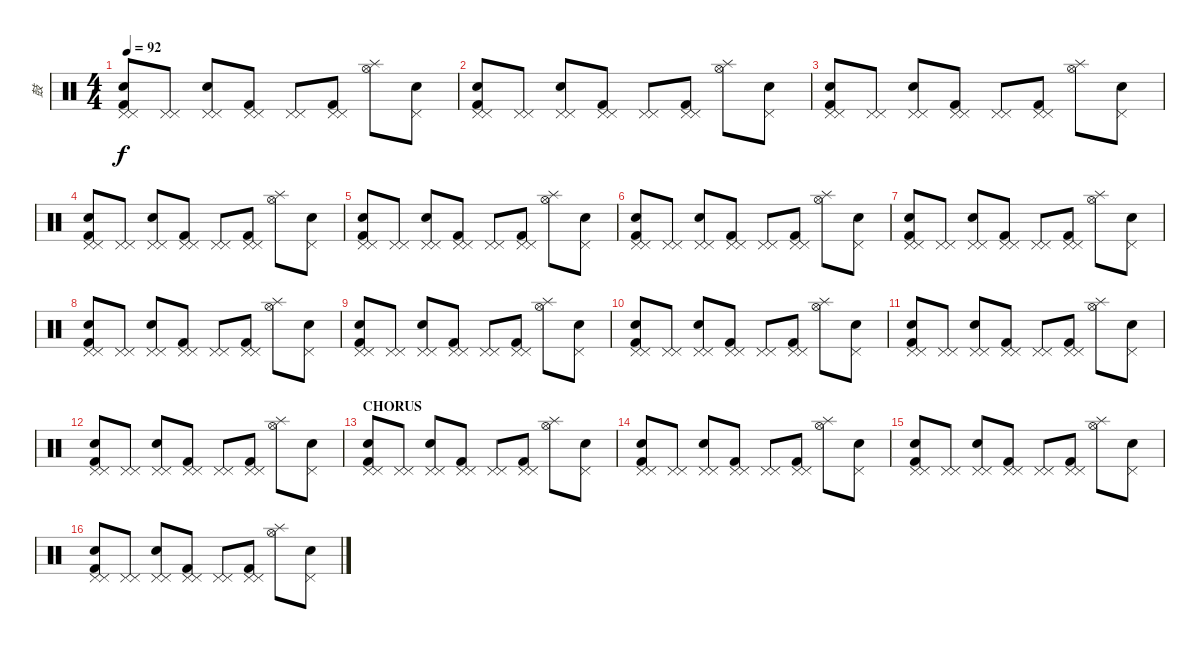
\track ("鼓" "鼓") {instrument percussion}
\staff {score}
\articulation defaults
\ts (4 4)
\tempo 92
\clef neutral
\ks c
("Pedal Hi-Hat (hit)" "Pedal Hi-Hat (hit)" "Kick (hit) 2" "Snare (hit) 2").8{dy f} ("Pedal Hi-Hat (hit)" "Pedal Hi-Hat (hit)").8 ("Pedal Hi-Hat (hit)" "Pedal Hi-Hat (hit)" "Electric Snare (hit)").8 ("Pedal Hi-Hat (hit)" "Pedal Hi-Hat (hit)" "Kick (hit) 2").8 ("Pedal Hi-Hat (hit)" "Pedal Hi-Hat (hit)").8 ("Pedal Hi-Hat (hit)" "Pedal Hi-Hat (hit)" "Kick (hit) 2").8 ("Splash (hit)" "Hi-Hat (open)").8 ("Pedal Hi-Hat (hit)" "Electric Snare (hit)").8 |
("Pedal Hi-Hat (hit)" "Pedal Hi-Hat (hit)" "Kick (hit) 2" "Snare (hit) 2").8 ("Pedal Hi-Hat (hit)" "Pedal Hi-Hat (hit)").8 ("Pedal Hi-Hat (hit)" "Pedal Hi-Hat (hit)" "Electric Snare (hit)").8 ("Pedal Hi-Hat (hit)" "Pedal Hi-Hat (hit)" "Kick (hit) 2").8 ("Pedal Hi-Hat (hit)" "Pedal Hi-Hat (hit)").8 ("Pedal Hi-Hat (hit)" "Pedal Hi-Hat (hit)" "Kick (hit) 2").8 ("Splash (hit)" "Hi-Hat (open)").8 ("Pedal Hi-Hat (hit)" "Electric Snare (hit)").8 |
("Pedal Hi-Hat (hit)" "Pedal Hi-Hat (hit)" "Kick (hit) 2" "Snare (hit) 2").8 ("Pedal Hi-Hat (hit)" "Pedal Hi-Hat (hit)").8 ("Pedal Hi-Hat (hit)" "Pedal Hi-Hat (hit)" "Electric Snare (hit)").8 ("Pedal Hi-Hat (hit)" "Pedal Hi-Hat (hit)" "Kick (hit) 2").8 ("Pedal Hi-Hat (hit)" "Pedal Hi-Hat (hit)").8 ("Pedal Hi-Hat (hit)" "Pedal Hi-Hat (hit)" "Kick (hit) 2").8 ("Splash (hit)" "Hi-Hat (open)").8 ("Pedal Hi-Hat (hit)" "Electric Snare (hit)").8 |
("Pedal Hi-Hat (hit)" "Pedal Hi-Hat (hit)" "Kick (hit) 2" "Snare (hit) 2").8 ("Pedal Hi-Hat (hit)" "Pedal Hi-Hat (hit)").8 ("Pedal Hi-Hat (hit)" "Pedal Hi-Hat (hit)" "Electric Snare (hit)").8 ("Pedal Hi-Hat (hit)" "Pedal Hi-Hat (hit)" "Kick (hit) 2").8 ("Pedal Hi-Hat (hit)" "Pedal Hi-Hat (hit)").8 ("Pedal Hi-Hat (hit)" "Pedal Hi-Hat (hit)" "Kick (hit) 2").8 ("Splash (hit)" "Hi-Hat (open)").8 ("Pedal Hi-Hat (hit)" "Electric Snare (hit)").8 |
("Pedal Hi-Hat (hit)" "Pedal Hi-Hat (hit)" "Kick (hit) 2" "Snare (hit) 2").8 ("Pedal Hi-Hat (hit)" "Pedal Hi-Hat (hit)").8 ("Pedal Hi-Hat (hit)" "Pedal Hi-Hat (hit)" "Electric Snare (hit)").8 ("Pedal Hi-Hat (hit)" "Pedal Hi-Hat (hit)" "Kick (hit) 2").8 ("Pedal Hi-Hat (hit)" "Pedal Hi-Hat (hit)").8 ("Pedal Hi-Hat (hit)" "Pedal Hi-Hat (hit)" "Kick (hit) 2").8 ("Splash (hit)" "Hi-Hat (open)").8 ("Pedal Hi-Hat (hit)" "Electric Snare (hit)").8 |
("Pedal Hi-Hat (hit)" "Pedal Hi-Hat (hit)" "Kick (hit) 2" "Snare (hit) 2").8 ("Pedal Hi-Hat (hit)" "Pedal Hi-Hat (hit)").8 ("Pedal Hi-Hat (hit)" "Pedal Hi-Hat (hit)" "Electric Snare (hit)").8 ("Pedal Hi-Hat (hit)" "Pedal Hi-Hat (hit)" "Kick (hit) 2").8 ("Pedal Hi-Hat (hit)" "Pedal Hi-Hat (hit)").8 ("Pedal Hi-Hat (hit)" "Pedal Hi-Hat (hit)" "Kick (hit) 2").8 ("Splash (hit)" "Hi-Hat (open)").8 ("Pedal Hi-Hat (hit)" "Electric Snare (hit)").8 |
("Pedal Hi-Hat (hit)" "Pedal Hi-Hat (hit)" "Kick (hit) 2" "Snare (hit) 2").8 ("Pedal Hi-Hat (hit)" "Pedal Hi-Hat (hit)").8 ("Pedal Hi-Hat (hit)" "Pedal Hi-Hat (hit)" "Electric Snare (hit)").8 ("Pedal Hi-Hat (hit)" "Pedal Hi-Hat (hit)" "Kick (hit) 2").8 ("Pedal Hi-Hat (hit)" "Pedal Hi-Hat (hit)").8 ("Pedal Hi-Hat (hit)" "Pedal Hi-Hat (hit)" "Kick (hit) 2").8 ("Splash (hit)" "Hi-Hat (open)").8 ("Pedal Hi-Hat (hit)" "Electric Snare (hit)").8 |
("Pedal Hi-Hat (hit)" "Pedal Hi-Hat (hit)" "Kick (hit) 2" "Snare (hit) 2").8 ("Pedal Hi-Hat (hit)" "Pedal Hi-Hat (hit)").8 ("Pedal Hi-Hat (hit)" "Pedal Hi-Hat (hit)" "Electric Snare (hit)").8 ("Pedal Hi-Hat (hit)" "Pedal Hi-Hat (hit)" "Kick (hit) 2").8 ("Pedal Hi-Hat (hit)" "Pedal Hi-Hat (hit)").8 ("Pedal Hi-Hat (hit)" "Pedal Hi-Hat (hit)" "Kick (hit) 2").8 ("Splash (hit)" "Hi-Hat (open)").8 ("Pedal Hi-Hat (hit)" "Electric Snare (hit)").8 |
("Pedal Hi-Hat (hit)" "Pedal Hi-Hat (hit)" "Kick (hit) 2" "Snare (hit) 2").8 ("Pedal Hi-Hat (hit)" "Pedal Hi-Hat (hit)").8 ("Pedal Hi-Hat (hit)" "Pedal Hi-Hat (hit)" "Electric Snare (hit)").8 ("Pedal Hi-Hat (hit)" "Pedal Hi-Hat (hit)" "Kick (hit) 2").8 ("Pedal Hi-Hat (hit)" "Pedal Hi-Hat (hit)").8 ("Pedal Hi-Hat (hit)" "Pedal Hi-Hat (hit)" "Kick (hit) 2").8 ("Splash (hit)" "Hi-Hat (open)").8 ("Pedal Hi-Hat (hit)" "Electric Snare (hit)").8 |
("Pedal Hi-Hat (hit)" "Pedal Hi-Hat (hit)" "Kick (hit) 2" "Snare (hit) 2").8 ("Pedal Hi-Hat (hit)" "Pedal Hi-Hat (hit)").8 ("Pedal Hi-Hat (hit)" "Pedal Hi-Hat (hit)" "Electric Snare (hit)").8 ("Pedal Hi-Hat (hit)" "Pedal Hi-Hat (hit)" "Kick (hit) 2").8 ("Pedal Hi-Hat (hit)" "Pedal Hi-Hat (hit)").8 ("Pedal Hi-Hat (hit)" "Pedal Hi-Hat (hit)" "Kick (hit) 2").8 ("Splash (hit)" "Hi-Hat (open)").8 ("Pedal Hi-Hat (hit)" "Electric Snare (hit)").8 |
("Pedal Hi-Hat (hit)" "Pedal Hi-Hat (hit)" "Kick (hit) 2" "Snare (hit) 2").8 ("Pedal Hi-Hat (hit)" "Pedal Hi-Hat (hit)").8 ("Pedal Hi-Hat (hit)" "Pedal Hi-Hat (hit)" "Electric Snare (hit)").8 ("Pedal Hi-Hat (hit)" "Pedal Hi-Hat (hit)" "Kick (hit) 2").8 ("Pedal Hi-Hat (hit)" "Pedal Hi-Hat (hit)").8 ("Pedal Hi-Hat (hit)" "Pedal Hi-Hat (hit)" "Kick (hit) 2").8 ("Splash (hit)" "Hi-Hat (open)").8 ("Pedal Hi-Hat (hit)" "Electric Snare (hit)").8 |
("Pedal Hi-Hat (hit)" "Pedal Hi-Hat (hit)" "Kick (hit) 2" "Snare (hit) 2").8 ("Pedal Hi-Hat (hit)" "Pedal Hi-Hat (hit)").8 ("Pedal Hi-Hat (hit)" "Pedal Hi-Hat (hit)" "Electric Snare (hit)").8 ("Pedal Hi-Hat (hit)" "Pedal Hi-Hat (hit)" "Kick (hit) 2").8 ("Pedal Hi-Hat (hit)" "Pedal Hi-Hat (hit)").8 ("Pedal Hi-Hat (hit)" "Pedal Hi-Hat (hit)" "Kick (hit) 2").8 ("Splash (hit)" "Hi-Hat (open)").8 ("Pedal Hi-Hat (hit)" "Electric Snare (hit)").8 |
\section ("" "CHORUS")
("Pedal Hi-Hat (hit)" "Pedal Hi-Hat (hit)" "Kick (hit) 2" "Snare (hit) 2").8 ("Pedal Hi-Hat (hit)" "Pedal Hi-Hat (hit)").8 ("Pedal Hi-Hat (hit)" "Pedal Hi-Hat (hit)" "Electric Snare (hit)").8 ("Pedal Hi-Hat (hit)" "Pedal Hi-Hat (hit)" "Kick (hit) 2").8 ("Pedal Hi-Hat (hit)" "Pedal Hi-Hat (hit)").8 ("Pedal Hi-Hat (hit)" "Pedal Hi-Hat (hit)" "Kick (hit) 2").8 ("Splash (hit)" "Hi-Hat (open)").8 ("Pedal Hi-Hat (hit)" "Electric Snare (hit)").8 |
("Pedal Hi-Hat (hit)" "Pedal Hi-Hat (hit)" "Kick (hit) 2" "Snare (hit) 2").8 ("Pedal Hi-Hat (hit)" "Pedal Hi-Hat (hit)").8 ("Pedal Hi-Hat (hit)" "Pedal Hi-Hat (hit)" "Electric Snare (hit)").8 ("Pedal Hi-Hat (hit)" "Pedal Hi-Hat (hit)" "Kick (hit) 2").8 ("Pedal Hi-Hat (hit)" "Pedal Hi-Hat (hit)").8 ("Pedal Hi-Hat (hit)" "Pedal Hi-Hat (hit)" "Kick (hit) 2").8 ("Splash (hit)" "Hi-Hat (open)").8 ("Pedal Hi-Hat (hit)" "Electric Snare (hit)").8 |
("Pedal Hi-Hat (hit)" "Pedal Hi-Hat (hit)" "Kick (hit) 2" "Snare (hit) 2").8 ("Pedal Hi-Hat (hit)" "Pedal Hi-Hat (hit)").8 ("Pedal Hi-Hat (hit)" "Pedal Hi-Hat (hit)" "Electric Snare (hit)").8 ("Pedal Hi-Hat (hit)" "Pedal Hi-Hat (hit)" "Kick (hit) 2").8 ("Pedal Hi-Hat (hit)" "Pedal Hi-Hat (hit)").8 ("Pedal Hi-Hat (hit)" "Pedal Hi-Hat (hit)" "Kick (hit) 2").8 ("Splash (hit)" "Hi-Hat (open)").8 ("Pedal Hi-Hat (hit)" "Electric Snare (hit)").8 |
("Pedal Hi-Hat (hit)" "Pedal Hi-Hat (hit)" "Kick (hit) 2" "Snare (hit) 2").8 ("Pedal Hi-Hat (hit)" "Pedal Hi-Hat (hit)").8 ("Pedal Hi-Hat (hit)" "Pedal Hi-Hat (hit)" "Electric Snare (hit)").8 ("Pedal Hi-Hat (hit)" "Pedal Hi-Hat (hit)" "Kick (hit) 2").8 ("Pedal Hi-Hat (hit)" "Pedal Hi-Hat (hit)").8 ("Pedal Hi-Hat (hit)" "Pedal Hi-Hat (hit)" "Kick (hit) 2").8 ("Splash (hit)" "Hi-Hat (open)").8 ("Pedal Hi-Hat (hit)" "Electric Snare (hit)").8
